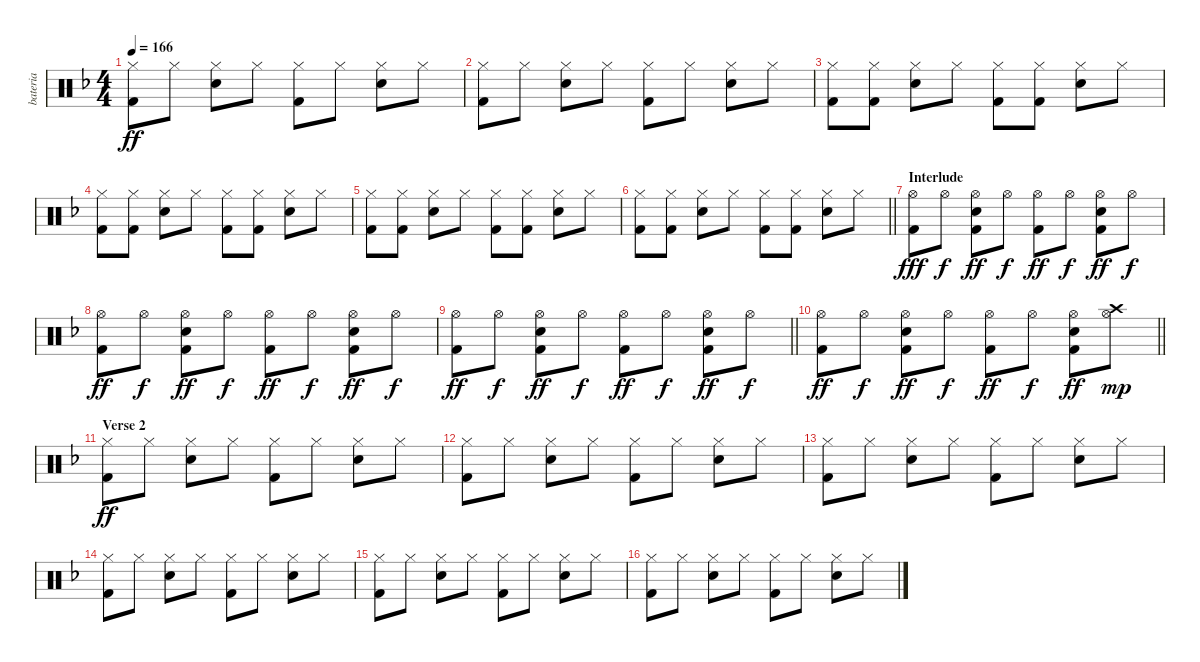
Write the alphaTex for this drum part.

\track ("bateria" "bateria") {instrument percussion}
\staff {score}
\articulation defaults
\ts (4 4)
\tempo 166
\clef neutral
\ks f
("Hi-Hat (closed)" "Kick (hit) 2").8{dy ff} "Hi-Hat (closed)".8 ("Hi-Hat (closed)" "Electric Snare (hit)").8 "Hi-Hat (closed)".8 ("Hi-Hat (closed)" "Kick (hit) 2").8 "Hi-Hat (closed)".8 ("Hi-Hat (closed)" "Electric Snare (hit)").8 "Hi-Hat (closed)".8 |
("Hi-Hat (closed)" "Kick (hit) 2").8 "Hi-Hat (closed)".8 ("Hi-Hat (closed)" "Electric Snare (hit)").8 "Hi-Hat (closed)".8 ("Hi-Hat (closed)" "Kick (hit) 2").8 "Hi-Hat (closed)".8 ("Hi-Hat (closed)" "Electric Snare (hit)").8 "Hi-Hat (closed)".8 |
("Hi-Hat (closed)" "Kick (hit) 2").8 ("Hi-Hat (closed)" "Kick (hit) 2").8 ("Hi-Hat (closed)" "Electric Snare (hit)").8 "Hi-Hat (closed)".8 ("Hi-Hat (closed)" "Kick (hit) 2").8 ("Hi-Hat (closed)" "Kick (hit) 2").8 ("Hi-Hat (closed)" "Electric Snare (hit)").8 "Hi-Hat (closed)".8 |
("Hi-Hat (closed)" "Kick (hit) 2").8 ("Hi-Hat (closed)" "Kick (hit) 2").8 ("Hi-Hat (closed)" "Electric Snare (hit)").8 "Hi-Hat (closed)".8 ("Hi-Hat (closed)" "Kick (hit) 2").8 ("Hi-Hat (closed)" "Kick (hit) 2").8 ("Hi-Hat (closed)" "Electric Snare (hit)").8 "Hi-Hat (closed)".8 |
("Hi-Hat (closed)" "Kick (hit) 2").8 ("Hi-Hat (closed)" "Kick (hit) 2").8 ("Hi-Hat (closed)" "Electric Snare (hit)").8 "Hi-Hat (closed)".8 ("Hi-Hat (closed)" "Kick (hit) 2").8 ("Hi-Hat (closed)" "Kick (hit) 2").8 ("Hi-Hat (closed)" "Electric Snare (hit)").8 "Hi-Hat (closed)".8 |
\barLineRight lightlight
("Hi-Hat (closed)" "Kick (hit) 2").8 ("Hi-Hat (closed)" "Kick (hit) 2").8 ("Hi-Hat (closed)" "Electric Snare (hit)").8 "Hi-Hat (closed)".8 ("Hi-Hat (closed)" "Kick (hit) 2").8 ("Hi-Hat (closed)" "Kick (hit) 2").8 ("Hi-Hat (closed)" "Electric Snare (hit)").8 "Hi-Hat (closed)".8 |
\section ("" "Interlude")
("Hi-Hat (open)" "Kick (hit) 2").8{dy fff} "Hi-Hat (open)".8{dy f} ("Hi-Hat (open)" "Kick (hit) 2" "Electric Snare (hit)").8{dy ff} "Hi-Hat (open)".8{dy f} ("Hi-Hat (open)" "Kick (hit) 2").8{dy ff} "Hi-Hat (open)".8{dy f} ("Hi-Hat (open)" "Kick (hit) 2" "Electric Snare (hit)").8{dy ff} "Hi-Hat (open)".8{dy f} |
("Hi-Hat (open)" "Kick (hit) 2").8{dy ff} "Hi-Hat (open)".8{dy f} ("Hi-Hat (open)" "Kick (hit) 2" "Electric Snare (hit)").8{dy ff} "Hi-Hat (open)".8{dy f} ("Hi-Hat (open)" "Kick (hit) 2").8{dy ff} "Hi-Hat (open)".8{dy f} ("Hi-Hat (open)" "Kick (hit) 2" "Electric Snare (hit)").8{dy ff} "Hi-Hat (open)".8{dy f} |
\barLineRight lightlight
("Hi-Hat (open)" "Kick (hit) 2").8{dy ff} "Hi-Hat (open)".8{dy f} ("Hi-Hat (open)" "Kick (hit) 2" "Electric Snare (hit)").8{dy ff} "Hi-Hat (open)".8{dy f} ("Hi-Hat (open)" "Kick (hit) 2").8{dy ff} "Hi-Hat (open)".8{dy f} ("Hi-Hat (open)" "Kick (hit) 2" "Electric Snare (hit)").8{dy ff} "Hi-Hat (open)".8{dy f} |
\section ("" "")
\barLineRight lightlight
("Hi-Hat (open)" "Kick (hit) 2").8{dy ff} "Hi-Hat (open)".8{dy f} ("Hi-Hat (open)" "Kick (hit) 2" "Electric Snare (hit)").8{dy ff} "Hi-Hat (open)".8{dy f} ("Hi-Hat (open)" "Kick (hit) 2").8{dy ff} "Hi-Hat (open)".8{dy f} ("Hi-Hat (open)" "Kick (hit) 2" "Electric Snare (hit)").8{dy ff} ("Hi-Hat (open)" "Crash high (hit)").8{dy mp} |
\section ("" "Verse 2")
("Hi-Hat (closed)" "Kick (hit) 2").8{dy ff} "Hi-Hat (closed)".8 ("Hi-Hat (closed)" "Electric Snare (hit)").8 "Hi-Hat (closed)".8 ("Hi-Hat (closed)" "Kick (hit) 2").8 "Hi-Hat (closed)".8 ("Hi-Hat (closed)" "Electric Snare (hit)").8 "Hi-Hat (closed)".8 |
("Hi-Hat (closed)" "Kick (hit) 2").8 "Hi-Hat (closed)".8 ("Hi-Hat (closed)" "Electric Snare (hit)").8 "Hi-Hat (closed)".8 ("Hi-Hat (closed)" "Kick (hit) 2").8 "Hi-Hat (closed)".8 ("Hi-Hat (closed)" "Electric Snare (hit)").8 "Hi-Hat (closed)".8 |
("Hi-Hat (closed)" "Kick (hit) 2").8 "Hi-Hat (closed)".8 ("Hi-Hat (closed)" "Electric Snare (hit)").8 "Hi-Hat (closed)".8 ("Hi-Hat (closed)" "Kick (hit) 2").8 "Hi-Hat (closed)".8 ("Hi-Hat (closed)" "Electric Snare (hit)").8 "Hi-Hat (closed)".8 |
("Hi-Hat (closed)" "Kick (hit) 2").8 "Hi-Hat (closed)".8 ("Hi-Hat (closed)" "Electric Snare (hit)").8 "Hi-Hat (closed)".8 ("Hi-Hat (closed)" "Kick (hit) 2").8 "Hi-Hat (closed)".8 ("Hi-Hat (closed)" "Electric Snare (hit)").8 "Hi-Hat (closed)".8 |
("Hi-Hat (closed)" "Kick (hit) 2").8 "Hi-Hat (closed)".8 ("Hi-Hat (closed)" "Electric Snare (hit)").8 "Hi-Hat (closed)".8 ("Hi-Hat (closed)" "Kick (hit) 2").8 "Hi-Hat (closed)".8 ("Hi-Hat (closed)" "Electric Snare (hit)").8 "Hi-Hat (closed)".8 |
("Hi-Hat (closed)" "Kick (hit) 2").8 "Hi-Hat (closed)".8 ("Hi-Hat (closed)" "Electric Snare (hit)").8 "Hi-Hat (closed)".8 ("Hi-Hat (closed)" "Kick (hit) 2").8 "Hi-Hat (closed)".8 ("Hi-Hat (closed)" "Electric Snare (hit)").8 "Hi-Hat (closed)".8
